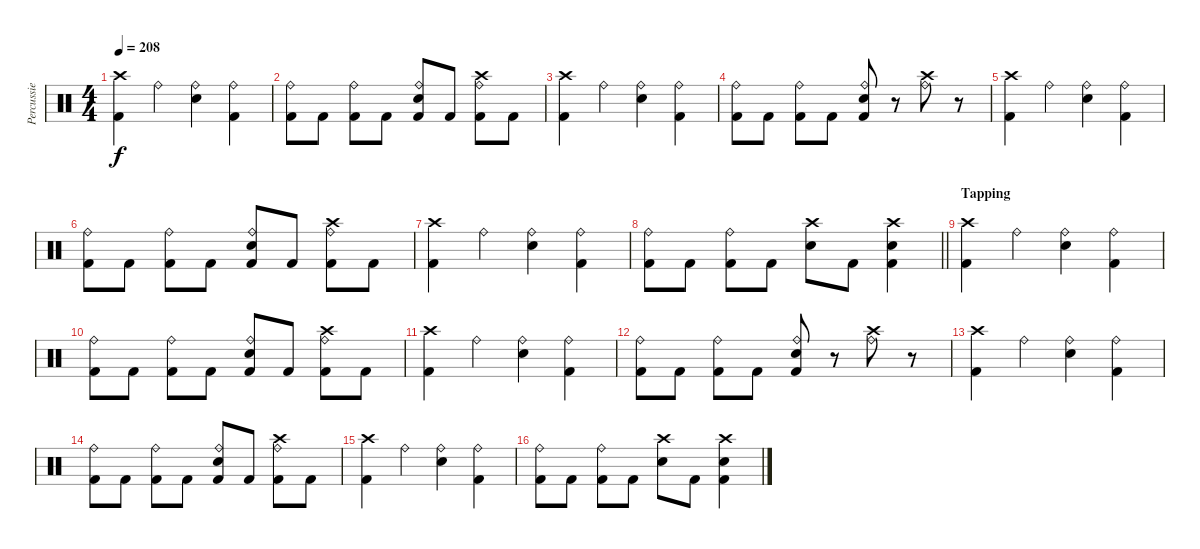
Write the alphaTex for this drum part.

\track ("Percussie" "Percussie") {instrument percussion}
\staff {score}
\articulation defaults
\ts (4 4)
\tempo 208
\clef neutral
\ks c
("Crash high (hit)" "Kick (hit) 2").4{dy f} "Ride (bell)".4 ("Ride (bell)" "Electric Snare (hit)").4 ("Ride (bell)" "Kick (hit) 2").4 |
("Ride (bell)" "Kick (hit) 2").8 "Kick (hit) 2".8 ("Ride (bell)" "Kick (hit) 2").8 "Kick (hit) 2".8 ("Ride (bell)" "Electric Snare (hit)" "Kick (hit) 2").8 "Kick (hit) 2".8 ("Ride (bell)" "Crash high (hit)" "Kick (hit) 2").8 "Kick (hit) 2".8 |
("Crash high (hit)" "Kick (hit) 2").4 "Ride (bell)".4 ("Ride (bell)" "Electric Snare (hit)").4 ("Ride (bell)" "Kick (hit) 2").4 |
("Ride (bell)" "Kick (hit) 2").8 "Kick (hit) 2".8 ("Ride (bell)" "Kick (hit) 2").8 "Kick (hit) 2".8 ("Ride (bell)" "Electric Snare (hit)" "Kick (hit) 2").8 r.8 ("Ride (bell)" "Crash high (hit)").8 r.8 |
("Crash high (hit)" "Kick (hit) 2").4 "Ride (bell)".4 ("Ride (bell)" "Electric Snare (hit)").4 ("Ride (bell)" "Kick (hit) 2").4 |
("Ride (bell)" "Kick (hit) 2").8 "Kick (hit) 2".8 ("Ride (bell)" "Kick (hit) 2").8 "Kick (hit) 2".8 ("Ride (bell)" "Electric Snare (hit)" "Kick (hit) 2").8 "Kick (hit) 2".8 ("Ride (bell)" "Crash high (hit)" "Kick (hit) 2").8 "Kick (hit) 2".8 |
("Crash high (hit)" "Kick (hit) 2").4 "Ride (bell)".4 ("Ride (bell)" "Electric Snare (hit)").4 ("Ride (bell)" "Kick (hit) 2").4 |
\barLineRight lightlight
("Ride (bell)" "Kick (hit) 2").8 "Kick (hit) 2".8 ("Ride (bell)" "Kick (hit) 2").8 "Kick (hit) 2".8 ("Crash high (hit)" "Electric Snare (hit)").8 "Kick (hit) 2".8 ("Crash high (hit)" "Electric Snare (hit)" "Kick (hit) 2").4 |
\section ("" "Tapping")
("Crash high (hit)" "Kick (hit) 2").4 "Ride (bell)".4 ("Ride (bell)" "Electric Snare (hit)").4 ("Ride (bell)" "Kick (hit) 2").4 |
("Ride (bell)" "Kick (hit) 2").8 "Kick (hit) 2".8 ("Ride (bell)" "Kick (hit) 2").8 "Kick (hit) 2".8 ("Ride (bell)" "Electric Snare (hit)" "Kick (hit) 2").8 "Kick (hit) 2".8 ("Ride (bell)" "Crash high (hit)" "Kick (hit) 2").8 "Kick (hit) 2".8 |
("Crash high (hit)" "Kick (hit) 2").4 "Ride (bell)".4 ("Ride (bell)" "Electric Snare (hit)").4 ("Ride (bell)" "Kick (hit) 2").4 |
("Ride (bell)" "Kick (hit) 2").8 "Kick (hit) 2".8 ("Ride (bell)" "Kick (hit) 2").8 "Kick (hit) 2".8 ("Ride (bell)" "Electric Snare (hit)" "Kick (hit) 2").8 r.8 ("Ride (bell)" "Crash high (hit)").8 r.8 |
("Crash high (hit)" "Kick (hit) 2").4 "Ride (bell)".4 ("Ride (bell)" "Electric Snare (hit)").4 ("Ride (bell)" "Kick (hit) 2").4 |
("Ride (bell)" "Kick (hit) 2").8 "Kick (hit) 2".8 ("Ride (bell)" "Kick (hit) 2").8 "Kick (hit) 2".8 ("Ride (bell)" "Electric Snare (hit)" "Kick (hit) 2").8 "Kick (hit) 2".8 ("Ride (bell)" "Crash high (hit)" "Kick (hit) 2").8 "Kick (hit) 2".8 |
("Crash high (hit)" "Kick (hit) 2").4 "Ride (bell)".4 ("Ride (bell)" "Electric Snare (hit)").4 ("Ride (bell)" "Kick (hit) 2").4 |
("Ride (bell)" "Kick (hit) 2").8 "Kick (hit) 2".8 ("Ride (bell)" "Kick (hit) 2").8 "Kick (hit) 2".8 ("Crash high (hit)" "Electric Snare (hit)").8 "Kick (hit) 2".8 ("Crash high (hit)" "Electric Snare (hit)" "Kick (hit) 2").4
